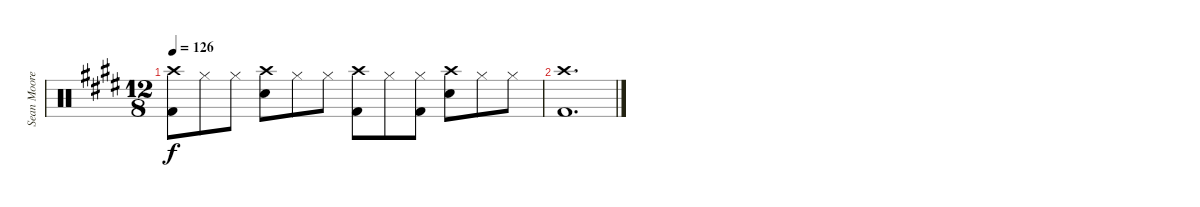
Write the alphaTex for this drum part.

\track ("Sean Moore (Drums)" "Sean Moore") {instrument percussion}
\staff {score}
\articulation defaults
\ts (12 8)
\tempo 126
\clef neutral
\ks e
("Crash high (hit)" "Kick (hit) 2").8{dy f} "Hi-Hat (closed)".8 "Hi-Hat (closed)".8 ("Crash high (hit)" "Electric Snare (hit)").8 "Hi-Hat (closed)".8 "Hi-Hat (closed)".8 ("Crash high (hit)" "Kick (hit) 2").8 "Hi-Hat (closed)".8 ("Hi-Hat (closed)" "Kick (hit) 2").8 ("Crash high (hit)" "Electric Snare (hit)").8 "Hi-Hat (closed)".8 "Hi-Hat (closed)".8 |
("Crash high (hit)" "Kick (hit) 2").1{d}
